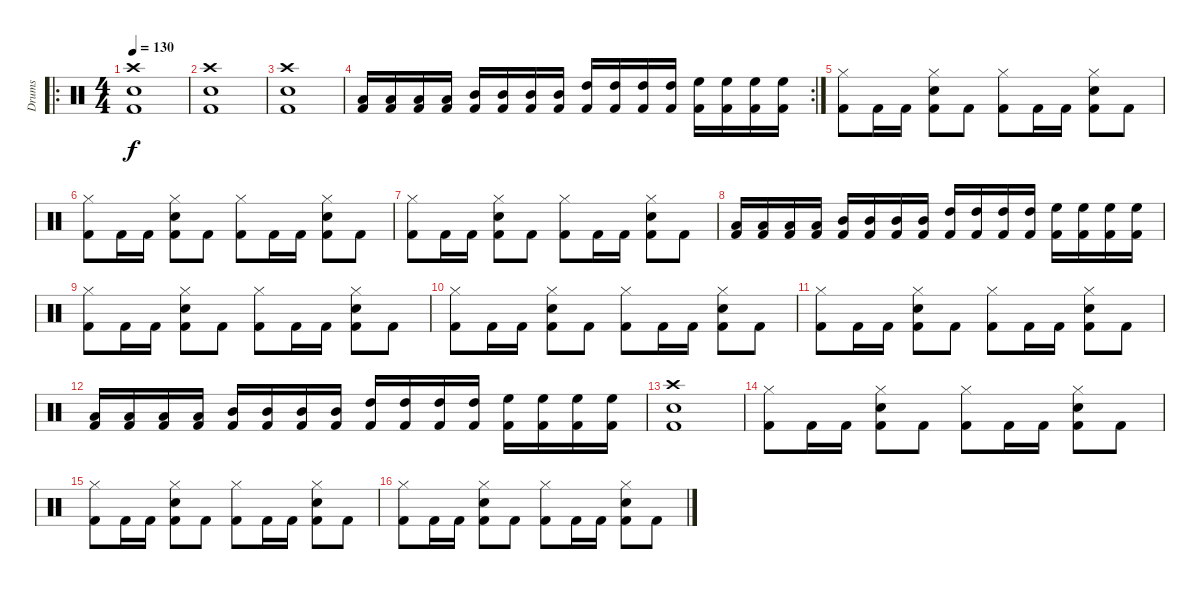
\track ("Drums" "Drums") {instrument percussion}
\staff {score}
\articulation defaults
\ro
\ts (4 4)
\tempo 130
\clef neutral
\ks c
("Crash high (hit)" "Electric Snare (hit)" "Kick (hit) 2").1{dy f} |
("Crash high (hit)" "Electric Snare (hit)" "Kick (hit) 2").1 |
("Crash high (hit)" "Electric Snare (hit)" "Kick (hit) 2").1 |
\rc 2
("Low Tom (hit)" "Kick (hit) 2").16 ("Low Tom (hit)" "Kick (hit) 2").16 ("Low Tom (hit)" "Kick (hit) 2").16 ("Low Tom (hit)" "Kick (hit) 2").16 ("Mid Tom (hit)" "Kick (hit) 2").16 ("Mid Tom (hit)" "Kick (hit) 2").16 ("Mid Tom (hit)" "Kick (hit) 2").16 ("Mid Tom (hit)" "Kick (hit) 2").16 ("High Tom (hit)" "Kick (hit) 2").16 ("High Tom (hit)" "Kick (hit) 2").16 ("High Tom (hit)" "Kick (hit) 2").16 ("High Tom (hit)" "Kick (hit) 2").16 ("High Floor Tom (hit)" "Kick (hit) 2").16 ("High Floor Tom (hit)" "Kick (hit) 2").16 ("High Floor Tom (hit)" "Kick (hit) 2").16 ("High Floor Tom (hit)" "Kick (hit) 2").16 |
("Hi-Hat (closed)" "Kick (hit) 2").8 "Kick (hit) 2".16 "Kick (hit) 2".16 ("Electric Snare (hit)" "Hi-Hat (closed)" "Kick (hit) 2").8 "Kick (hit) 2".8 ("Hi-Hat (closed)" "Kick (hit) 2").8 "Kick (hit) 2".16 "Kick (hit) 2".16 ("Electric Snare (hit)" "Hi-Hat (closed)" "Kick (hit) 2").8 "Kick (hit) 2".8 |
("Hi-Hat (closed)" "Kick (hit) 2").8 "Kick (hit) 2".16 "Kick (hit) 2".16 ("Electric Snare (hit)" "Hi-Hat (closed)" "Kick (hit) 2").8 "Kick (hit) 2".8 ("Hi-Hat (closed)" "Kick (hit) 2").8 "Kick (hit) 2".16 "Kick (hit) 2".16 ("Electric Snare (hit)" "Hi-Hat (closed)" "Kick (hit) 2").8 "Kick (hit) 2".8 |
("Hi-Hat (closed)" "Kick (hit) 2").8 "Kick (hit) 2".16 "Kick (hit) 2".16 ("Electric Snare (hit)" "Hi-Hat (closed)" "Kick (hit) 2").8 "Kick (hit) 2".8 ("Hi-Hat (closed)" "Kick (hit) 2").8 "Kick (hit) 2".16 "Kick (hit) 2".16 ("Electric Snare (hit)" "Hi-Hat (closed)" "Kick (hit) 2").8 "Kick (hit) 2".8 |
("Low Tom (hit)" "Kick (hit) 2").16 ("Low Tom (hit)" "Kick (hit) 2").16 ("Low Tom (hit)" "Kick (hit) 2").16 ("Low Tom (hit)" "Kick (hit) 2").16 ("Mid Tom (hit)" "Kick (hit) 2").16 ("Mid Tom (hit)" "Kick (hit) 2").16 ("Mid Tom (hit)" "Kick (hit) 2").16 ("Mid Tom (hit)" "Kick (hit) 2").16 ("High Tom (hit)" "Kick (hit) 2").16 ("High Tom (hit)" "Kick (hit) 2").16 ("High Tom (hit)" "Kick (hit) 2").16 ("High Tom (hit)" "Kick (hit) 2").16 ("High Floor Tom (hit)" "Kick (hit) 2").16 ("High Floor Tom (hit)" "Kick (hit) 2").16 ("High Floor Tom (hit)" "Kick (hit) 2").16 ("High Floor Tom (hit)" "Kick (hit) 2").16 |
("Hi-Hat (closed)" "Kick (hit) 2").8 "Kick (hit) 2".16 "Kick (hit) 2".16 ("Electric Snare (hit)" "Hi-Hat (closed)" "Kick (hit) 2").8 "Kick (hit) 2".8 ("Hi-Hat (closed)" "Kick (hit) 2").8 "Kick (hit) 2".16 "Kick (hit) 2".16 ("Electric Snare (hit)" "Hi-Hat (closed)" "Kick (hit) 2").8 "Kick (hit) 2".8 |
("Hi-Hat (closed)" "Kick (hit) 2").8 "Kick (hit) 2".16 "Kick (hit) 2".16 ("Electric Snare (hit)" "Hi-Hat (closed)" "Kick (hit) 2").8 "Kick (hit) 2".8 ("Hi-Hat (closed)" "Kick (hit) 2").8 "Kick (hit) 2".16 "Kick (hit) 2".16 ("Electric Snare (hit)" "Hi-Hat (closed)" "Kick (hit) 2").8 "Kick (hit) 2".8 |
("Hi-Hat (closed)" "Kick (hit) 2").8 "Kick (hit) 2".16 "Kick (hit) 2".16 ("Electric Snare (hit)" "Hi-Hat (closed)" "Kick (hit) 2").8 "Kick (hit) 2".8 ("Hi-Hat (closed)" "Kick (hit) 2").8 "Kick (hit) 2".16 "Kick (hit) 2".16 ("Electric Snare (hit)" "Hi-Hat (closed)" "Kick (hit) 2").8 "Kick (hit) 2".8 |
("Low Tom (hit)" "Kick (hit) 2").16 ("Low Tom (hit)" "Kick (hit) 2").16 ("Low Tom (hit)" "Kick (hit) 2").16 ("Low Tom (hit)" "Kick (hit) 2").16 ("Mid Tom (hit)" "Kick (hit) 2").16 ("Mid Tom (hit)" "Kick (hit) 2").16 ("Mid Tom (hit)" "Kick (hit) 2").16 ("Mid Tom (hit)" "Kick (hit) 2").16 ("High Tom (hit)" "Kick (hit) 2").16 ("High Tom (hit)" "Kick (hit) 2").16 ("High Tom (hit)" "Kick (hit) 2").16 ("High Tom (hit)" "Kick (hit) 2").16 ("High Floor Tom (hit)" "Kick (hit) 2").16 ("High Floor Tom (hit)" "Kick (hit) 2").16 ("High Floor Tom (hit)" "Kick (hit) 2").16 ("High Floor Tom (hit)" "Kick (hit) 2").16 |
("Crash high (hit)" "Electric Snare (hit)" "Kick (hit) 2").1 |
("Hi-Hat (closed)" "Kick (hit) 2").8 "Kick (hit) 2".16 "Kick (hit) 2".16 ("Electric Snare (hit)" "Hi-Hat (closed)" "Kick (hit) 2").8 "Kick (hit) 2".8 ("Hi-Hat (closed)" "Kick (hit) 2").8 "Kick (hit) 2".16 "Kick (hit) 2".16 ("Electric Snare (hit)" "Hi-Hat (closed)" "Kick (hit) 2").8 "Kick (hit) 2".8 |
("Hi-Hat (closed)" "Kick (hit) 2").8 "Kick (hit) 2".16 "Kick (hit) 2".16 ("Electric Snare (hit)" "Hi-Hat (closed)" "Kick (hit) 2").8 "Kick (hit) 2".8 ("Hi-Hat (closed)" "Kick (hit) 2").8 "Kick (hit) 2".16 "Kick (hit) 2".16 ("Electric Snare (hit)" "Hi-Hat (closed)" "Kick (hit) 2").8 "Kick (hit) 2".8 |
("Hi-Hat (closed)" "Kick (hit) 2").8 "Kick (hit) 2".16 "Kick (hit) 2".16 ("Electric Snare (hit)" "Hi-Hat (closed)" "Kick (hit) 2").8 "Kick (hit) 2".8 ("Hi-Hat (closed)" "Kick (hit) 2").8 "Kick (hit) 2".16 "Kick (hit) 2".16 ("Electric Snare (hit)" "Hi-Hat (closed)" "Kick (hit) 2").8 "Kick (hit) 2".8
